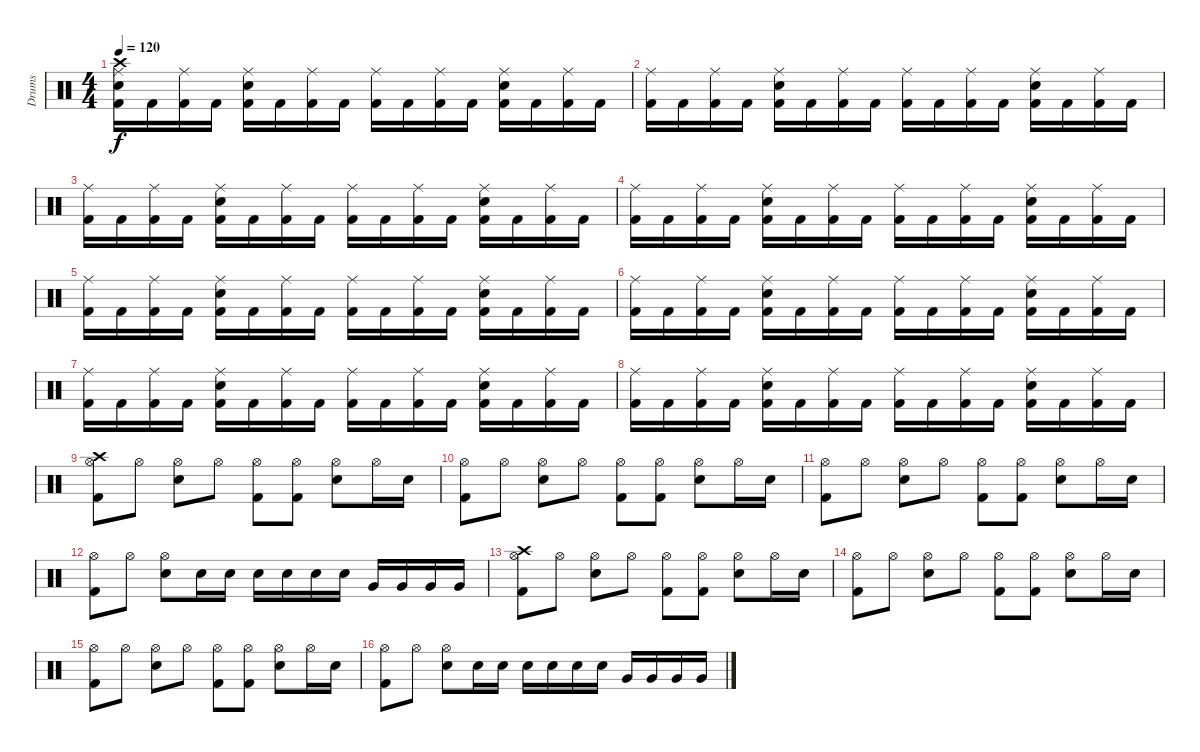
\track ("Drums" "Drums") {instrument percussion}
\staff {score}
\articulation defaults
\ts (4 4)
\tempo 120
\clef neutral
\ks c
("Crash high (hit)" "Electric Snare (hit)" "Ride (middle)" "Kick (hit) 2").16{dy f} "Kick (hit) 2".16 ("Ride (middle)" "Kick (hit) 2").16 "Kick (hit) 2".16 ("Electric Snare (hit)" "Ride (middle)" "Kick (hit) 2").16 "Kick (hit) 2".16 ("Ride (middle)" "Kick (hit) 2").16 "Kick (hit) 2".16 ("Ride (middle)" "Kick (hit) 2").16 "Kick (hit) 2".16 ("Ride (middle)" "Kick (hit) 2").16 "Kick (hit) 2".16 ("Electric Snare (hit)" "Ride (middle)" "Kick (hit) 2").16 "Kick (hit) 2".16 ("Ride (middle)" "Kick (hit) 2").16 "Kick (hit) 2".16 |
("Ride (middle)" "Kick (hit) 2").16 "Kick (hit) 2".16 ("Ride (middle)" "Kick (hit) 2").16 "Kick (hit) 2".16 ("Electric Snare (hit)" "Ride (middle)" "Kick (hit) 2").16 "Kick (hit) 2".16 ("Ride (middle)" "Kick (hit) 2").16 "Kick (hit) 2".16 ("Ride (middle)" "Kick (hit) 2").16 "Kick (hit) 2".16 ("Ride (middle)" "Kick (hit) 2").16 "Kick (hit) 2".16 ("Electric Snare (hit)" "Ride (middle)" "Kick (hit) 2").16 "Kick (hit) 2".16 ("Ride (middle)" "Kick (hit) 2").16 "Kick (hit) 2".16 |
("Ride (middle)" "Kick (hit) 2").16 "Kick (hit) 2".16 ("Ride (middle)" "Kick (hit) 2").16 "Kick (hit) 2".16 ("Electric Snare (hit)" "Ride (middle)" "Kick (hit) 2").16 "Kick (hit) 2".16 ("Ride (middle)" "Kick (hit) 2").16 "Kick (hit) 2".16 ("Ride (middle)" "Kick (hit) 2").16 "Kick (hit) 2".16 ("Ride (middle)" "Kick (hit) 2").16 "Kick (hit) 2".16 ("Electric Snare (hit)" "Ride (middle)" "Kick (hit) 2").16 "Kick (hit) 2".16 ("Ride (middle)" "Kick (hit) 2").16 "Kick (hit) 2".16 |
("Ride (middle)" "Kick (hit) 2").16 "Kick (hit) 2".16 ("Ride (middle)" "Kick (hit) 2").16 "Kick (hit) 2".16 ("Electric Snare (hit)" "Ride (middle)" "Kick (hit) 2").16 "Kick (hit) 2".16 ("Ride (middle)" "Kick (hit) 2").16 "Kick (hit) 2".16 ("Ride (middle)" "Kick (hit) 2").16 "Kick (hit) 2".16 ("Ride (middle)" "Kick (hit) 2").16 "Kick (hit) 2".16 ("Electric Snare (hit)" "Ride (middle)" "Kick (hit) 2").16 "Kick (hit) 2".16 ("Ride (middle)" "Kick (hit) 2").16 "Kick (hit) 2".16 |
("Ride (middle)" "Kick (hit) 2").16 "Kick (hit) 2".16 ("Ride (middle)" "Kick (hit) 2").16 "Kick (hit) 2".16 ("Electric Snare (hit)" "Ride (middle)" "Kick (hit) 2").16 "Kick (hit) 2".16 ("Ride (middle)" "Kick (hit) 2").16 "Kick (hit) 2".16 ("Ride (middle)" "Kick (hit) 2").16 "Kick (hit) 2".16 ("Ride (middle)" "Kick (hit) 2").16 "Kick (hit) 2".16 ("Electric Snare (hit)" "Ride (middle)" "Kick (hit) 2").16 "Kick (hit) 2".16 ("Ride (middle)" "Kick (hit) 2").16 "Kick (hit) 2".16 |
("Ride (middle)" "Kick (hit) 2").16 "Kick (hit) 2".16 ("Ride (middle)" "Kick (hit) 2").16 "Kick (hit) 2".16 ("Electric Snare (hit)" "Ride (middle)" "Kick (hit) 2").16 "Kick (hit) 2".16 ("Ride (middle)" "Kick (hit) 2").16 "Kick (hit) 2".16 ("Ride (middle)" "Kick (hit) 2").16 "Kick (hit) 2".16 ("Ride (middle)" "Kick (hit) 2").16 "Kick (hit) 2".16 ("Electric Snare (hit)" "Ride (middle)" "Kick (hit) 2").16 "Kick (hit) 2".16 ("Ride (middle)" "Kick (hit) 2").16 "Kick (hit) 2".16 |
("Ride (middle)" "Kick (hit) 2").16 "Kick (hit) 2".16 ("Ride (middle)" "Kick (hit) 2").16 "Kick (hit) 2".16 ("Electric Snare (hit)" "Ride (middle)" "Kick (hit) 2").16 "Kick (hit) 2".16 ("Ride (middle)" "Kick (hit) 2").16 "Kick (hit) 2".16 ("Ride (middle)" "Kick (hit) 2").16 "Kick (hit) 2".16 ("Ride (middle)" "Kick (hit) 2").16 "Kick (hit) 2".16 ("Electric Snare (hit)" "Ride (middle)" "Kick (hit) 2").16 "Kick (hit) 2".16 ("Ride (middle)" "Kick (hit) 2").16 "Kick (hit) 2".16 |
("Ride (middle)" "Kick (hit) 2").16 "Kick (hit) 2".16 ("Ride (middle)" "Kick (hit) 2").16 "Kick (hit) 2".16 ("Electric Snare (hit)" "Ride (middle)" "Kick (hit) 2").16 "Kick (hit) 2".16 ("Ride (middle)" "Kick (hit) 2").16 "Kick (hit) 2".16 ("Ride (middle)" "Kick (hit) 2").16 "Kick (hit) 2".16 ("Ride (middle)" "Kick (hit) 2").16 "Kick (hit) 2".16 ("Electric Snare (hit)" "Ride (middle)" "Kick (hit) 2").16 "Kick (hit) 2".16 ("Ride (middle)" "Kick (hit) 2").16 "Kick (hit) 2".16 |
("Crash high (hit)" "Hi-Hat (open)" "Kick (hit) 2").8 "Hi-Hat (open)".8 ("Hi-Hat (open)" "Electric Snare (hit)").8 "Hi-Hat (open)".8 ("Hi-Hat (open)" "Kick (hit) 2").8 ("Hi-Hat (open)" "Kick (hit) 2").8 ("Hi-Hat (open)" "Electric Snare (hit)").8 "Hi-Hat (open)".16 "Electric Snare (hit)".16 |
("Hi-Hat (open)" "Kick (hit) 2").8 "Hi-Hat (open)".8 ("Hi-Hat (open)" "Electric Snare (hit)").8 "Hi-Hat (open)".8 ("Hi-Hat (open)" "Kick (hit) 2").8 ("Hi-Hat (open)" "Kick (hit) 2").8 ("Hi-Hat (open)" "Electric Snare (hit)").8 "Hi-Hat (open)".16 "Electric Snare (hit)".16 |
("Hi-Hat (open)" "Kick (hit) 2").8 "Hi-Hat (open)".8 ("Hi-Hat (open)" "Electric Snare (hit)").8 "Hi-Hat (open)".8 ("Hi-Hat (open)" "Kick (hit) 2").8 ("Hi-Hat (open)" "Kick (hit) 2").8 ("Hi-Hat (open)" "Electric Snare (hit)").8 "Hi-Hat (open)".16 "Electric Snare (hit)".16 |
("Hi-Hat (open)" "Kick (hit) 2").8 "Hi-Hat (open)".8 ("Hi-Hat (open)" "Electric Snare (hit)").8 "Electric Snare (hit)".16 "Electric Snare (hit)".16 "Electric Snare (hit)".16 "Electric Snare (hit)".16 "Electric Snare (hit)".16 "Electric Snare (hit)".16 "Very Low Tom (hit)".16 "Very Low Tom (hit)".16 "Very Low Tom (hit)".16 "Very Low Tom (hit)".16 |
("Crash high (hit)" "Hi-Hat (open)" "Kick (hit) 2").8 "Hi-Hat (open)".8 ("Hi-Hat (open)" "Electric Snare (hit)").8 "Hi-Hat (open)".8 ("Hi-Hat (open)" "Kick (hit) 2").8 ("Hi-Hat (open)" "Kick (hit) 2").8 ("Hi-Hat (open)" "Electric Snare (hit)").8 "Hi-Hat (open)".16 "Electric Snare (hit)".16 |
("Hi-Hat (open)" "Kick (hit) 2").8 "Hi-Hat (open)".8 ("Hi-Hat (open)" "Electric Snare (hit)").8 "Hi-Hat (open)".8 ("Hi-Hat (open)" "Kick (hit) 2").8 ("Hi-Hat (open)" "Kick (hit) 2").8 ("Hi-Hat (open)" "Electric Snare (hit)").8 "Hi-Hat (open)".16 "Electric Snare (hit)".16 |
("Hi-Hat (open)" "Kick (hit) 2").8 "Hi-Hat (open)".8 ("Hi-Hat (open)" "Electric Snare (hit)").8 "Hi-Hat (open)".8 ("Hi-Hat (open)" "Kick (hit) 2").8 ("Hi-Hat (open)" "Kick (hit) 2").8 ("Hi-Hat (open)" "Electric Snare (hit)").8 "Hi-Hat (open)".16 "Electric Snare (hit)".16 |
("Hi-Hat (open)" "Kick (hit) 2").8 "Hi-Hat (open)".8 ("Hi-Hat (open)" "Electric Snare (hit)").8 "Electric Snare (hit)".16 "Electric Snare (hit)".16 "Electric Snare (hit)".16 "Electric Snare (hit)".16 "Electric Snare (hit)".16 "Electric Snare (hit)".16 "Very Low Tom (hit)".16 "Very Low Tom (hit)".16 "Very Low Tom (hit)".16 "Very Low Tom (hit)".16
